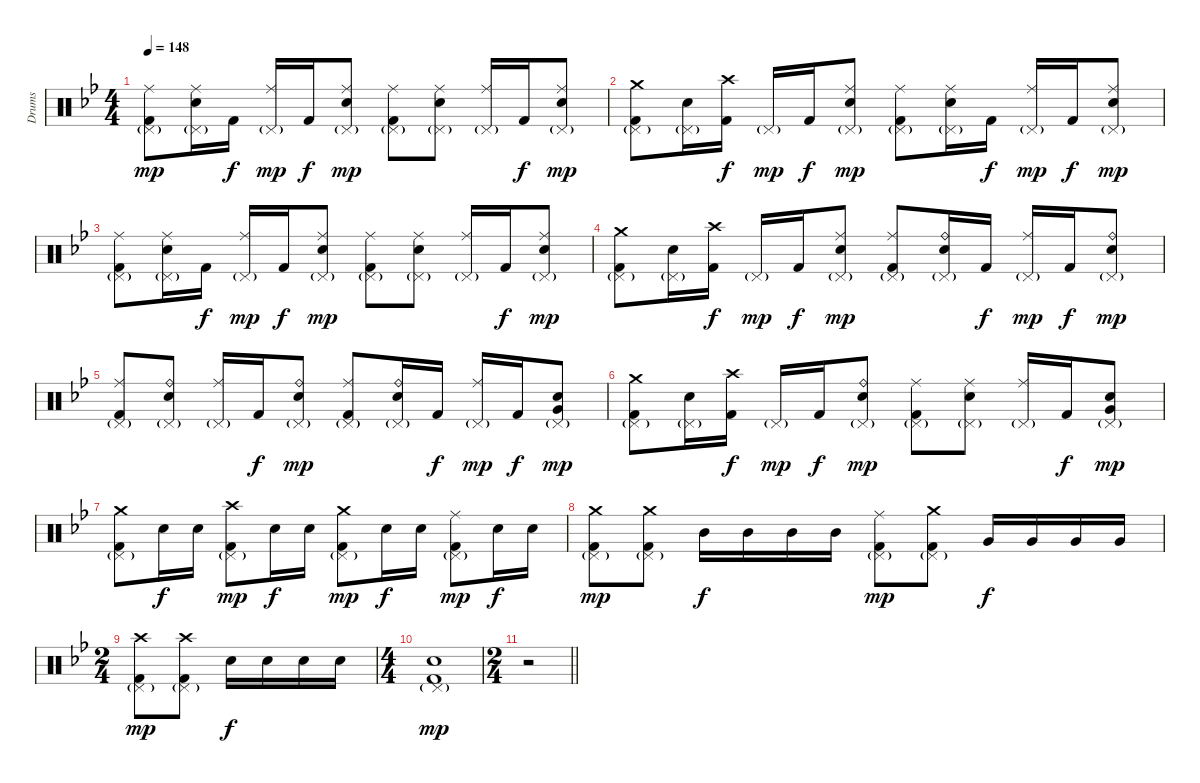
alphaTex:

\track ("Drums" "Drums") {instrument percussion}
\staff {score}
\articulation defaults
\ts (4 4)
\tempo 148
\clef neutral
\ks gminor
("Ride (middle)" "Pedal Hi-Hat (hit)"{g} "Kick (hit) 2").8{dy mp} ("Ride (middle)" "Pedal Hi-Hat (hit)"{g} "Electric Snare (hit)").16 "Kick (hit) 2".16{dy f} ("Ride (middle)" "Pedal Hi-Hat (hit)"{g}).16{dy mp} "Kick (hit) 2".16{dy f} ("Ride (middle)" "Pedal Hi-Hat (hit)"{g} "Electric Snare (hit)").8{dy mp} ("Ride (middle)" "Pedal Hi-Hat (hit)"{g} "Kick (hit) 2").8 ("Ride (middle)" "Pedal Hi-Hat (hit)"{g} "Electric Snare (hit)").8 ("Ride (middle)" "Pedal Hi-Hat (hit)"{g}).16 "Kick (hit) 2".16{dy f} ("Ride (middle)" "Pedal Hi-Hat (hit)"{g} "Electric Snare (hit)").8{dy mp} |
("Crash medium (hit)" "Pedal Hi-Hat (hit)"{g} "Kick (hit) 2").8 ("Pedal Hi-Hat (hit)"{g} "Electric Snare (hit)").16 ("Crash high (hit)" "Kick (hit) 2").16{dy f} "Pedal Hi-Hat (hit)"{g}.16{dy mp} "Kick (hit) 2".16{dy f} ("Ride (middle)" "Pedal Hi-Hat (hit)"{g} "Electric Snare (hit)").8{dy mp} ("Ride (middle)" "Pedal Hi-Hat (hit)"{g} "Kick (hit) 2").8 ("Ride (middle)" "Pedal Hi-Hat (hit)"{g} "Electric Snare (hit)").16 "Kick (hit) 2".16{dy f} ("Ride (middle)" "Pedal Hi-Hat (hit)"{g}).16{dy mp} "Kick (hit) 2".16{dy f} ("Ride (middle)" "Pedal Hi-Hat (hit)"{g} "Electric Snare (hit)").8{dy mp} |
("Ride (middle)" "Pedal Hi-Hat (hit)"{g} "Kick (hit) 2").8 ("Ride (middle)" "Pedal Hi-Hat (hit)"{g} "Electric Snare (hit)").16 "Kick (hit) 2".16{dy f} ("Ride (middle)" "Pedal Hi-Hat (hit)"{g}).16{dy mp} "Kick (hit) 2".16{dy f} ("Ride (middle)" "Pedal Hi-Hat (hit)"{g} "Electric Snare (hit)").8{dy mp} ("Ride (middle)" "Pedal Hi-Hat (hit)"{g} "Kick (hit) 2").8 ("Ride (middle)" "Pedal Hi-Hat (hit)"{g} "Electric Snare (hit)").8 ("Ride (middle)" "Pedal Hi-Hat (hit)"{g}).16 "Kick (hit) 2".16{dy f} ("Ride (middle)" "Pedal Hi-Hat (hit)"{g} "Electric Snare (hit)").8{dy mp} |
("Crash medium (hit)" "Pedal Hi-Hat (hit)"{g} "Kick (hit) 2").8 ("Pedal Hi-Hat (hit)"{g} "Electric Snare (hit)").16 ("Crash high (hit)" "Kick (hit) 2").16{dy f} "Pedal Hi-Hat (hit)"{g}.16{dy mp} "Kick (hit) 2".16{dy f} ("Ride (middle)" "Pedal Hi-Hat (hit)"{g} "Electric Snare (hit)").8{dy mp} ("Ride (middle)" "Pedal Hi-Hat (hit)"{g} "Kick (hit) 2").8 ("Ride (bell)" "Pedal Hi-Hat (hit)"{g} "Electric Snare (hit)").16 "Kick (hit) 2".16{dy f} ("Ride (middle)" "Pedal Hi-Hat (hit)"{g}).16{dy mp} "Kick (hit) 2".16{dy f} ("Ride (bell)" "Pedal Hi-Hat (hit)"{g} "Electric Snare (hit)").8{dy mp} |
("Ride (middle)" "Pedal Hi-Hat (hit)"{g} "Kick (hit) 2").8 ("Ride (bell)" "Pedal Hi-Hat (hit)"{g} "Electric Snare (hit)").8 ("Ride (middle)" "Pedal Hi-Hat (hit)"{g}).16 "Kick (hit) 2".16{dy f} ("Ride (bell)" "Pedal Hi-Hat (hit)"{g} "Electric Snare (hit)").8{dy mp} ("Ride (middle)" "Pedal Hi-Hat (hit)"{g} "Kick (hit) 2").8 ("Ride (bell)" "Pedal Hi-Hat (hit)"{g} "Electric Snare (hit)").16 "Kick (hit) 2".16{dy f} ("Ride (middle)" "Pedal Hi-Hat (hit)"{g}).16{dy mp} "Kick (hit) 2".16{dy f} ("Pedal Hi-Hat (hit)"{g} "Electric Snare (hit)" "Very Low Tom (hit)").8{dy mp} |
("Crash medium (hit)" "Pedal Hi-Hat (hit)"{g} "Kick (hit) 2").8 ("Pedal Hi-Hat (hit)"{g} "Electric Snare (hit)").16 ("Crash high (hit)" "Kick (hit) 2").16{dy f} "Pedal Hi-Hat (hit)"{g}.16{dy mp} "Kick (hit) 2".16{dy f} ("Ride (bell)" "Pedal Hi-Hat (hit)"{g} "Electric Snare (hit)").8{dy mp} ("Ride (middle)" "Pedal Hi-Hat (hit)"{g} "Kick (hit) 2").8 ("Ride (middle)" "Pedal Hi-Hat (hit)"{g} "Electric Snare (hit)").8 ("Ride (middle)" "Pedal Hi-Hat (hit)"{g}).16 "Kick (hit) 2".16{dy f} ("Pedal Hi-Hat (hit)"{g} "Electric Snare (hit)" "Very Low Tom (hit)").8{dy mp} |
("Crash medium (hit)" "Pedal Hi-Hat (hit)"{g} "Kick (hit) 2").8 "Electric Snare (hit)".16{dy f} "Electric Snare (hit)".16 ("Crash high (hit)" "Pedal Hi-Hat (hit)"{g} "Kick (hit) 2").8{dy mp} "Electric Snare (hit)".16{dy f} "Electric Snare (hit)".16 ("Crash medium (hit)" "Pedal Hi-Hat (hit)"{g} "Kick (hit) 2").8{dy mp} "Electric Snare (hit)".16{dy f} "Electric Snare (hit)".16 ("Ride (middle)" "Pedal Hi-Hat (hit)"{g} "Kick (hit) 2").8{dy mp} "Electric Snare (hit)".16{dy f} "Electric Snare (hit)".16 |
("Crash medium (hit)" "Pedal Hi-Hat (hit)"{g} "Kick (hit) 2").8{dy mp} ("Crash medium (hit)" "Pedal Hi-Hat (hit)"{g} "Kick (hit) 2").8 "Mid Tom (hit)".16{dy f} "Mid Tom (hit)".16 "Mid Tom (hit)".16 "Mid Tom (hit)".16 ("Ride (middle)" "Pedal Hi-Hat (hit)"{g} "Kick (hit) 2").8{dy mp} ("Crash medium (hit)" "Pedal Hi-Hat (hit)"{g} "Kick (hit) 2").8 "Very Low Tom (hit)".16{dy f} "Very Low Tom (hit)".16 "Very Low Tom (hit)".16 "Very Low Tom (hit)".16 |
\ts (2 4)
("Crash high (hit)" "Pedal Hi-Hat (hit)"{g} "Kick (hit) 2").8{dy mp} ("Crash high (hit)" "Pedal Hi-Hat (hit)"{g} "Kick (hit) 2").8 "Electric Snare (hit)".16{dy f} "Electric Snare (hit)".16 "Electric Snare (hit)".16 "Electric Snare (hit)".16 |
\ts (4 4)
("Pedal Hi-Hat (hit)"{g} "Electric Snare (hit)" "Kick (hit) 2").1{dy mp} |
\ts (2 4)
\barLineRight lightlight
r.2
